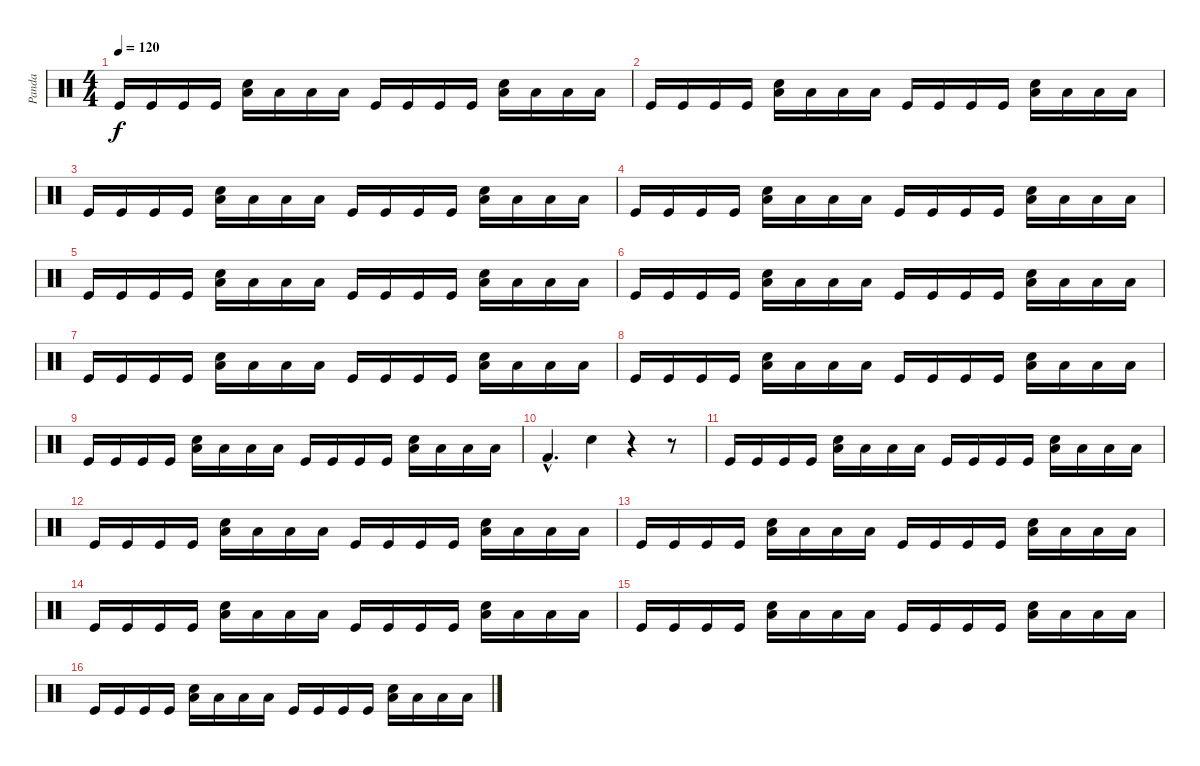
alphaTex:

\track ("Panda" "Panda") {instrument percussion}
\staff {score}
\articulation defaults
\ts (4 4)
\tempo 120
\clef neutral
\ks c "Kick (hit)".16{dy f} "Kick (hit)".16 "Kick (hit)".16 "Kick (hit)".16
("Electric Snare (hit)" "Low Floor Tom (hit)").16 "Low Floor Tom (hit)".16 "Low Floor Tom (hit)".16 "Low Floor Tom (hit)".16 "Kick (hit)".16 "Kick (hit)".16 "Kick (hit)".16 "Kick (hit)".16 ("Electric Snare (hit)" "Low Floor Tom (hit)").16 "Low Floor Tom (hit)".16 "Low Floor Tom (hit)".16 "Low Floor Tom (hit)".16 |
"Kick (hit)".16 "Kick (hit)".16 "Kick (hit)".16 "Kick (hit)".16 ("Electric Snare (hit)" "Low Floor Tom (hit)").16 "Low Floor Tom (hit)".16 "Low Floor Tom (hit)".16 "Low Floor Tom (hit)".16 "Kick (hit)".16 "Kick (hit)".16 "Kick (hit)".16 "Kick (hit)".16 ("Electric Snare (hit)" "Low Floor Tom (hit)").16 "Low Floor Tom (hit)".16 "Low Floor Tom (hit)".16 "Low Floor Tom (hit)".16 |
"Kick (hit)".16 "Kick (hit)".16 "Kick (hit)".16 "Kick (hit)".16 ("Electric Snare (hit)" "Low Floor Tom (hit)").16 "Low Floor Tom (hit)".16 "Low Floor Tom (hit)".16 "Low Floor Tom (hit)".16 "Kick (hit)".16 "Kick (hit)".16 "Kick (hit)".16 "Kick (hit)".16 ("Electric Snare (hit)" "Low Floor Tom (hit)").16 "Low Floor Tom (hit)".16 "Low Floor Tom (hit)".16 "Low Floor Tom (hit)".16 |
"Kick (hit)".16 "Kick (hit)".16 "Kick (hit)".16 "Kick (hit)".16 ("Electric Snare (hit)" "Low Floor Tom (hit)").16 "Low Floor Tom (hit)".16 "Low Floor Tom (hit)".16 "Low Floor Tom (hit)".16 "Kick (hit)".16 "Kick (hit)".16 "Kick (hit)".16 "Kick (hit)".16 ("Electric Snare (hit)" "Low Floor Tom (hit)").16 "Low Floor Tom (hit)".16 "Low Floor Tom (hit)".16 "Low Floor Tom (hit)".16 |
"Kick (hit)".16 "Kick (hit)".16 "Kick (hit)".16 "Kick (hit)".16 ("Electric Snare (hit)" "Low Floor Tom (hit)").16 "Low Floor Tom (hit)".16 "Low Floor Tom (hit)".16 "Low Floor Tom (hit)".16 "Kick (hit)".16 "Kick (hit)".16 "Kick (hit)".16 "Kick (hit)".16 ("Electric Snare (hit)" "Low Floor Tom (hit)").16 "Low Floor Tom (hit)".16 "Low Floor Tom (hit)".16 "Low Floor Tom (hit)".16 |
"Kick (hit)".16 "Kick (hit)".16 "Kick (hit)".16 "Kick (hit)".16 ("Electric Snare (hit)" "Low Floor Tom (hit)").16 "Low Floor Tom (hit)".16 "Low Floor Tom (hit)".16 "Low Floor Tom (hit)".16 "Kick (hit)".16 "Kick (hit)".16 "Kick (hit)".16 "Kick (hit)".16 ("Electric Snare (hit)" "Low Floor Tom (hit)").16 "Low Floor Tom (hit)".16 "Low Floor Tom (hit)".16 "Low Floor Tom (hit)".16 |
"Kick (hit)".16 "Kick (hit)".16 "Kick (hit)".16 "Kick (hit)".16 ("Electric Snare (hit)" "Low Floor Tom (hit)").16 "Low Floor Tom (hit)".16 "Low Floor Tom (hit)".16 "Low Floor Tom (hit)".16 "Kick (hit)".16 "Kick (hit)".16 "Kick (hit)".16 "Kick (hit)".16 ("Electric Snare (hit)" "Low Floor Tom (hit)").16 "Low Floor Tom (hit)".16 "Low Floor Tom (hit)".16 "Low Floor Tom (hit)".16 |
"Kick (hit)".16 "Kick (hit)".16 "Kick (hit)".16 "Kick (hit)".16 ("Electric Snare (hit)" "Low Floor Tom (hit)").16 "Low Floor Tom (hit)".16 "Low Floor Tom (hit)".16 "Low Floor Tom (hit)".16 "Kick (hit)".16 "Kick (hit)".16 "Kick (hit)".16 "Kick (hit)".16 ("Electric Snare (hit)" "Low Floor Tom (hit)").16 "Low Floor Tom (hit)".16 "Low Floor Tom (hit)".16 "Low Floor Tom (hit)".16 |
"Kick (hit)".16 "Kick (hit)".16 "Kick (hit)".16 "Kick (hit)".16 ("Electric Snare (hit)" "Low Floor Tom (hit)").16 "Low Floor Tom (hit)".16 "Low Floor Tom (hit)".16 "Low Floor Tom (hit)".16 "Kick (hit)".16 "Kick (hit)".16 "Kick (hit)".16 "Kick (hit)".16 ("Electric Snare (hit)" "Low Floor Tom (hit)").16 "Low Floor Tom (hit)".16 "Low Floor Tom (hit)".16 "Low Floor Tom (hit)".16 |
"Kick (hit) 2"{hac}.4{d} "Electric Snare (hit)".4 r.4 r.8 |
"Kick (hit)".16 "Kick (hit)".16 "Kick (hit)".16 "Kick (hit)".16 ("Electric Snare (hit)" "Low Floor Tom (hit)").16 "Low Floor Tom (hit)".16 "Low Floor Tom (hit)".16 "Low Floor Tom (hit)".16 "Kick (hit)".16 "Kick (hit)".16 "Kick (hit)".16 "Kick (hit)".16 ("Electric Snare (hit)" "Low Floor Tom (hit)").16 "Low Floor Tom (hit)".16 "Low Floor Tom (hit)".16 "Low Floor Tom (hit)".16 |
"Kick (hit)".16 "Kick (hit)".16 "Kick (hit)".16 "Kick (hit)".16 ("Electric Snare (hit)" "Low Floor Tom (hit)").16 "Low Floor Tom (hit)".16 "Low Floor Tom (hit)".16 "Low Floor Tom (hit)".16 "Kick (hit)".16 "Kick (hit)".16 "Kick (hit)".16 "Kick (hit)".16 ("Electric Snare (hit)" "Low Floor Tom (hit)").16 "Low Floor Tom (hit)".16 "Low Floor Tom (hit)".16 "Low Floor Tom (hit)".16 |
"Kick (hit)".16 "Kick (hit)".16 "Kick (hit)".16 "Kick (hit)".16 ("Electric Snare (hit)" "Low Floor Tom (hit)").16 "Low Floor Tom (hit)".16 "Low Floor Tom (hit)".16 "Low Floor Tom (hit)".16 "Kick (hit)".16 "Kick (hit)".16 "Kick (hit)".16 "Kick (hit)".16 ("Electric Snare (hit)" "Low Floor Tom (hit)").16 "Low Floor Tom (hit)".16 "Low Floor Tom (hit)".16 "Low Floor Tom (hit)".16 |
"Kick (hit)".16 "Kick (hit)".16 "Kick (hit)".16 "Kick (hit)".16 ("Electric Snare (hit)" "Low Floor Tom (hit)").16 "Low Floor Tom (hit)".16 "Low Floor Tom (hit)".16 "Low Floor Tom (hit)".16 "Kick (hit)".16 "Kick (hit)".16 "Kick (hit)".16 "Kick (hit)".16 ("Electric Snare (hit)" "Low Floor Tom (hit)").16 "Low Floor Tom (hit)".16 "Low Floor Tom (hit)".16 "Low Floor Tom (hit)".16 |
"Kick (hit)".16 "Kick (hit)".16 "Kick (hit)".16 "Kick (hit)".16 ("Electric Snare (hit)" "Low Floor Tom (hit)").16 "Low Floor Tom (hit)".16 "Low Floor Tom (hit)".16 "Low Floor Tom (hit)".16 "Kick (hit)".16 "Kick (hit)".16 "Kick (hit)".16 "Kick (hit)".16 ("Electric Snare (hit)" "Low Floor Tom (hit)").16 "Low Floor Tom (hit)".16 "Low Floor Tom (hit)".16 "Low Floor Tom (hit)".16 |
"Kick (hit)".16 "Kick (hit)".16 "Kick (hit)".16 "Kick (hit)".16 ("Electric Snare (hit)" "Low Floor Tom (hit)").16 "Low Floor Tom (hit)".16 "Low Floor Tom (hit)".16 "Low Floor Tom (hit)".16 "Kick (hit)".16 "Kick (hit)".16 "Kick (hit)".16 "Kick (hit)".16 ("Electric Snare (hit)" "Low Floor Tom (hit)").16 "Low Floor Tom (hit)".16 "Low Floor Tom (hit)".16 "Low Floor Tom (hit)".16
